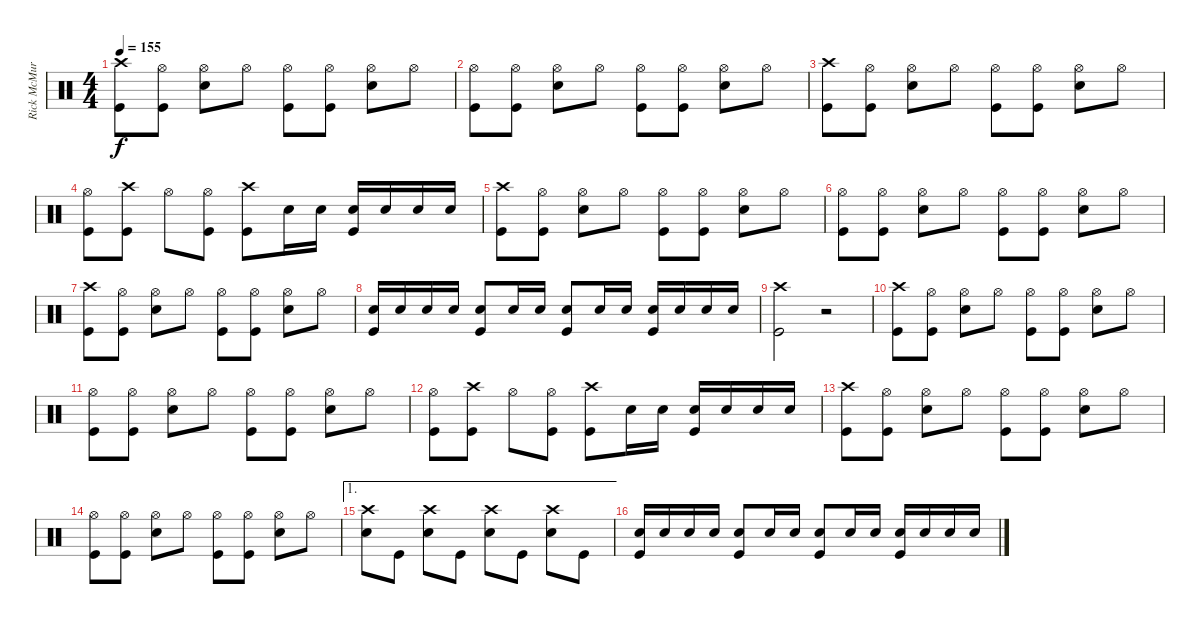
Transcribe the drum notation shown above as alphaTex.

\track ("Rick McMurray" "Rick McMur") {instrument percussion}
\staff {score}
\articulation defaults
\ts (4 4)
\tempo 155
\clef neutral
\ks c
("Crash high (hit)" "Kick (hit)").8{dy f} ("Hi-Hat (open)" "Kick (hit)").8 ("Hi-Hat (open)" "Snare (hit) 2").8 "Hi-Hat (open)".8 ("Hi-Hat (open)" "Kick (hit)").8 ("Hi-Hat (open)" "Kick (hit)").8 ("Hi-Hat (open)" "Snare (hit) 2").8 "Hi-Hat (open)".8 |
("Hi-Hat (open)" "Kick (hit)").8 ("Hi-Hat (open)" "Kick (hit)").8 ("Hi-Hat (open)" "Snare (hit) 2").8 "Hi-Hat (open)".8 ("Hi-Hat (open)" "Kick (hit)").8 ("Hi-Hat (open)" "Kick (hit)").8 ("Hi-Hat (open)" "Snare (hit) 2").8 "Hi-Hat (open)".8 |
("Crash high (hit)" "Kick (hit)").8 ("Hi-Hat (open)" "Kick (hit)").8 ("Hi-Hat (open)" "Snare (hit) 2").8 "Hi-Hat (open)".8 ("Hi-Hat (open)" "Kick (hit)").8 ("Hi-Hat (open)" "Kick (hit)").8 ("Hi-Hat (open)" "Snare (hit) 2").8 "Hi-Hat (open)".8 |
("Hi-Hat (open)" "Kick (hit)").8 ("Crash high (hit)" "Kick (hit)").8 "Hi-Hat (open)".8 ("Hi-Hat (open)" "Kick (hit)").8 ("Crash high (hit)" "Kick (hit)").8 "Snare (hit) 2".16 "Snare (hit) 2".16 ("Snare (hit) 2" "Kick (hit)").16 "Snare (hit) 2".16 "Snare (hit) 2".16 "Snare (hit) 2".16 |
("Crash high (hit)" "Kick (hit)").8 ("Hi-Hat (open)" "Kick (hit)").8 ("Hi-Hat (open)" "Snare (hit) 2").8 "Hi-Hat (open)".8 ("Hi-Hat (open)" "Kick (hit)").8 ("Hi-Hat (open)" "Kick (hit)").8 ("Hi-Hat (open)" "Snare (hit) 2").8 "Hi-Hat (open)".8 |
("Hi-Hat (open)" "Kick (hit)").8 ("Hi-Hat (open)" "Kick (hit)").8 ("Hi-Hat (open)" "Snare (hit) 2").8 "Hi-Hat (open)".8 ("Hi-Hat (open)" "Kick (hit)").8 ("Hi-Hat (open)" "Kick (hit)").8 ("Hi-Hat (open)" "Snare (hit) 2").8 "Hi-Hat (open)".8 |
("Crash high (hit)" "Kick (hit)").8 ("Hi-Hat (open)" "Kick (hit)").8 ("Hi-Hat (open)" "Snare (hit) 2").8 "Hi-Hat (open)".8 ("Hi-Hat (open)" "Kick (hit)").8 ("Hi-Hat (open)" "Kick (hit)").8 ("Hi-Hat (open)" "Snare (hit) 2").8 "Hi-Hat (open)".8 |
("Snare (hit) 2" "Kick (hit)").16 "Snare (hit) 2".16 "Snare (hit) 2".16 "Snare (hit) 2".16 ("Snare (hit) 2" "Kick (hit)").8 "Snare (hit) 2".16 "Snare (hit) 2".16 ("Snare (hit) 2" "Kick (hit)").8 "Snare (hit) 2".16 "Snare (hit) 2".16 ("Snare (hit) 2" "Kick (hit)").16 "Snare (hit) 2".16 "Snare (hit) 2".16 "Snare (hit) 2".16 |
("Crash high (hit)" "Kick (hit)").2 r.2 |
("Crash high (hit)" "Kick (hit)").8 ("Hi-Hat (open)" "Kick (hit)").8 ("Hi-Hat (open)" "Snare (hit) 2").8 "Hi-Hat (open)".8 ("Hi-Hat (open)" "Kick (hit)").8 ("Hi-Hat (open)" "Kick (hit)").8 ("Hi-Hat (open)" "Snare (hit) 2").8 "Hi-Hat (open)".8 |
("Hi-Hat (open)" "Kick (hit)").8 ("Hi-Hat (open)" "Kick (hit)").8 ("Hi-Hat (open)" "Snare (hit) 2").8 "Hi-Hat (open)".8 ("Hi-Hat (open)" "Kick (hit)").8 ("Hi-Hat (open)" "Kick (hit)").8 ("Hi-Hat (open)" "Snare (hit) 2").8 "Hi-Hat (open)".8 |
("Hi-Hat (open)" "Kick (hit)").8 ("Crash high (hit)" "Kick (hit)").8 "Hi-Hat (open)".8 ("Hi-Hat (open)" "Kick (hit)").8 ("Crash high (hit)" "Kick (hit)").8 "Snare (hit) 2".16 "Snare (hit) 2".16 ("Snare (hit) 2" "Kick (hit)").16 "Snare (hit) 2".16 "Snare (hit) 2".16 "Snare (hit) 2".16 |
("Crash high (hit)" "Kick (hit)").8 ("Hi-Hat (open)" "Kick (hit)").8 ("Hi-Hat (open)" "Snare (hit) 2").8 "Hi-Hat (open)".8 ("Hi-Hat (open)" "Kick (hit)").8 ("Hi-Hat (open)" "Kick (hit)").8 ("Hi-Hat (open)" "Snare (hit) 2").8 "Hi-Hat (open)".8 |
("Hi-Hat (open)" "Kick (hit)").8 ("Hi-Hat (open)" "Kick (hit)").8 ("Hi-Hat (open)" "Snare (hit) 2").8 "Hi-Hat (open)".8 ("Hi-Hat (open)" "Kick (hit)").8 ("Hi-Hat (open)" "Kick (hit)").8 ("Hi-Hat (open)" "Snare (hit) 2").8 "Hi-Hat (open)".8 |
\ae 1
("Crash high (hit)" "Snare (hit) 2").8{volume 13} "Kick (hit)".8 ("Crash high (hit)" "Snare (hit) 2").8 "Kick (hit)".8 ("Crash high (hit)" "Snare (hit) 2").8 "Kick (hit)".8 ("Crash high (hit)" "Snare (hit) 2").8 "Kick (hit)".8 |
("Snare (hit) 2" "Kick (hit)").16 "Snare (hit) 2".16 "Snare (hit) 2".16 "Snare (hit) 2".16 ("Snare (hit) 2" "Kick (hit)").8 "Snare (hit) 2".16 "Snare (hit) 2".16 ("Snare (hit) 2" "Kick (hit)").8 "Snare (hit) 2".16 "Snare (hit) 2".16 ("Snare (hit) 2" "Kick (hit)").16 "Snare (hit) 2".16 "Snare (hit) 2".16 "Snare (hit) 2".16
